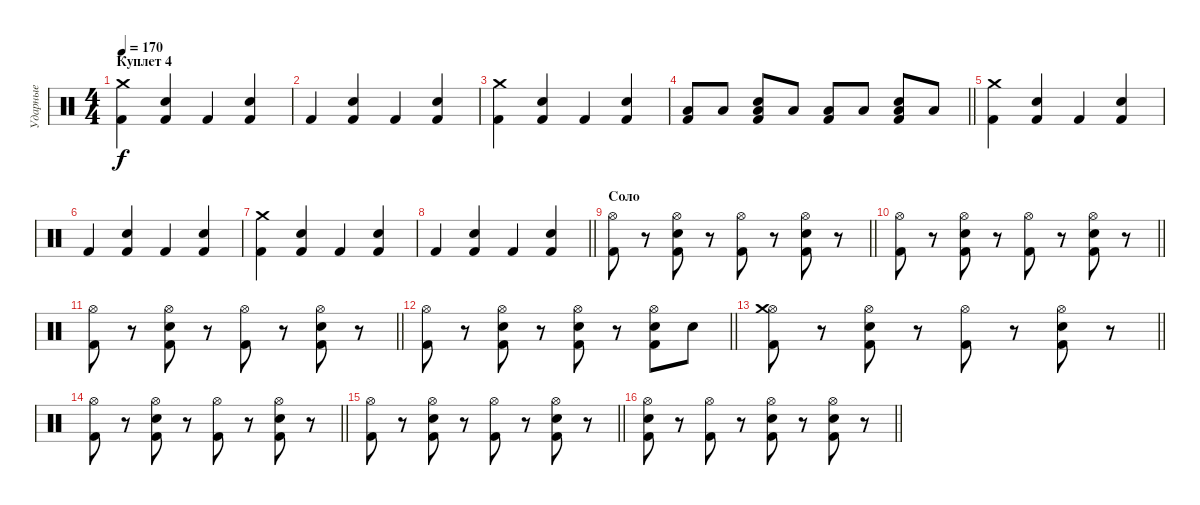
\track ("Ударные" "Ударные") {instrument percussion}
\staff {score}
\articulation defaults
\ts (4 4)
\section ("" "Куплет 4")
\tempo 170
\clef neutral
\ks c
("Kick (hit) 2" "Crash medium (hit)").4{dy f} ("Kick (hit) 2" "Electric Snare (hit)").4 "Kick (hit) 2".4 ("Kick (hit) 2" "Electric Snare (hit)").4 |
"Kick (hit) 2".4 ("Kick (hit) 2" "Electric Snare (hit)").4 "Kick (hit) 2".4 ("Kick (hit) 2" "Electric Snare (hit)").4 |
("Kick (hit) 2" "Crash medium (hit)").4 ("Kick (hit) 2" "Electric Snare (hit)").4 "Kick (hit) 2".4 ("Kick (hit) 2" "Electric Snare (hit)").4 |
\barLineRight lightlight
("Kick (hit) 2" "Low Floor Tom (hit)").8 "Low Tom (hit)".8 ("Kick (hit) 2" "Low Floor Tom (hit)" "Electric Snare (hit)").8 "Low Tom (hit)".8 ("Kick (hit) 2" "Low Floor Tom (hit)").8 "Low Tom (hit)".8 ("Kick (hit) 2" "Low Floor Tom (hit)" "Electric Snare (hit)").8 "Low Tom (hit)".8 |
("Kick (hit) 2" "Crash medium (hit)").4 ("Kick (hit) 2" "Electric Snare (hit)").4 "Kick (hit) 2".4 ("Kick (hit) 2" "Electric Snare (hit)").4 |
"Kick (hit) 2".4 ("Kick (hit) 2" "Electric Snare (hit)").4 "Kick (hit) 2".4 ("Kick (hit) 2" "Electric Snare (hit)").4 |
("Kick (hit) 2" "Crash medium (hit)").4 ("Kick (hit) 2" "Electric Snare (hit)").4 "Kick (hit) 2".4 ("Kick (hit) 2" "Electric Snare (hit)").4 |
\barLineRight lightlight "Kick (hit) 2".4
("Kick (hit) 2" "Electric Snare (hit)").4 "Kick (hit) 2".4 ("Kick (hit) 2" "Electric Snare (hit)").4 |
\section ("" "Соло")
\barLineRight lightlight
("Kick (hit) 2" "Hi-Hat (open)").8 r.8 ("Kick (hit) 2" "Hi-Hat (open)" "Electric Snare (hit)").8 r.8 ("Kick (hit) 2" "Hi-Hat (open)").8 r.8 ("Kick (hit) 2" "Hi-Hat (open)" "Electric Snare (hit)").8 r.8 |
\barLineRight lightlight
("Kick (hit) 2" "Hi-Hat (open)").8 r.8 ("Kick (hit) 2" "Hi-Hat (open)" "Electric Snare (hit)").8 r.8 ("Kick (hit) 2" "Hi-Hat (open)").8 r.8 ("Kick (hit) 2" "Hi-Hat (open)" "Electric Snare (hit)").8 r.8 |
\barLineRight lightlight
("Kick (hit) 2" "Hi-Hat (open)").8 r.8 ("Kick (hit) 2" "Hi-Hat (open)" "Electric Snare (hit)").8 r.8 ("Kick (hit) 2" "Hi-Hat (open)").8 r.8 ("Kick (hit) 2" "Hi-Hat (open)" "Electric Snare (hit)").8 r.8 |
\barLineRight lightlight
("Kick (hit) 2" "Hi-Hat (open)").8 r.8 ("Kick (hit) 2" "Hi-Hat (open)" "Electric Snare (hit)").8 r.8 ("Kick (hit) 2" "Hi-Hat (open)" "Electric Snare (hit)").8 r.8 ("Kick (hit) 2" "Hi-Hat (open)" "Electric Snare (hit)").8 "Electric Snare (hit)".8 |
\barLineRight lightlight
("Kick (hit) 2" "Hi-Hat (open)" "Crash medium (hit)").8 r.8 ("Kick (hit) 2" "Hi-Hat (open)" "Electric Snare (hit)").8 r.8 ("Kick (hit) 2" "Hi-Hat (open)").8 r.8 ("Kick (hit) 2" "Hi-Hat (open)" "Electric Snare (hit)").8 r.8 |
\barLineRight lightlight
("Kick (hit) 2" "Hi-Hat (open)").8 r.8 ("Kick (hit) 2" "Hi-Hat (open)" "Electric Snare (hit)").8 r.8 ("Kick (hit) 2" "Hi-Hat (open)").8 r.8 ("Kick (hit) 2" "Hi-Hat (open)" "Electric Snare (hit)").8 r.8 |
\barLineRight lightlight
("Kick (hit) 2" "Hi-Hat (open)").8 r.8 ("Kick (hit) 2" "Hi-Hat (open)" "Electric Snare (hit)").8 r.8 ("Kick (hit) 2" "Hi-Hat (open)").8 r.8 ("Kick (hit) 2" "Hi-Hat (open)" "Electric Snare (hit)").8 r.8 |
\barLineRight lightlight
("Kick (hit) 2" "Hi-Hat (open)" "Electric Snare (hit)").8 r.8 ("Kick (hit) 2" "Hi-Hat (open)").8 r.8 ("Kick (hit) 2" "Hi-Hat (open)" "Electric Snare (hit)").8 r.8 ("Kick (hit) 2" "Hi-Hat (open)" "Electric Snare (hit)").8 r.8
